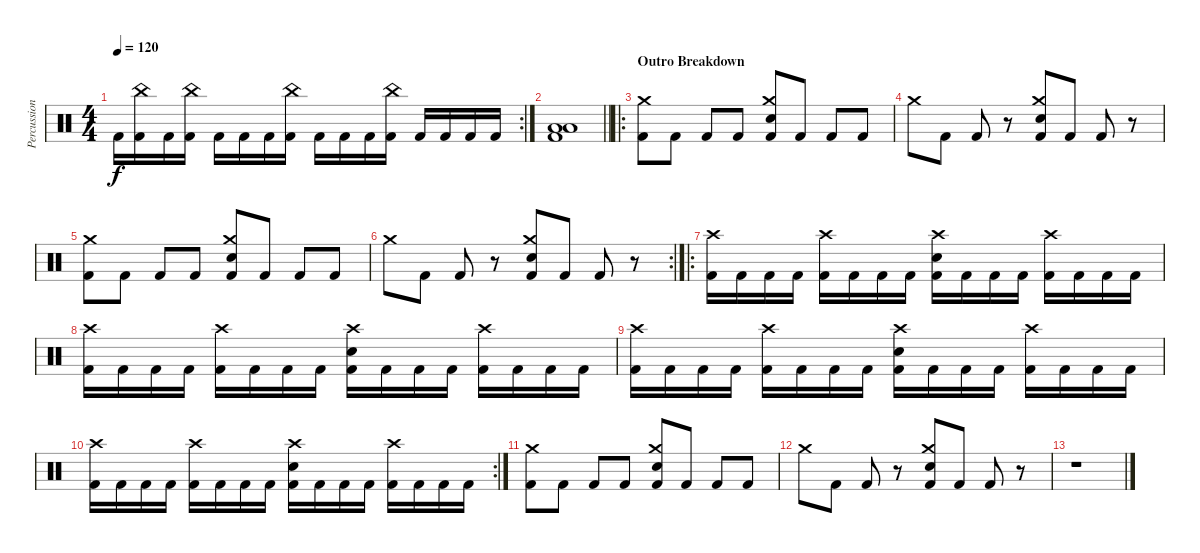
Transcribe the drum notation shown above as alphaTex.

\track ("Percussion" "Percussion") {instrument percussion}
\staff {score}
\articulation defaults
\rc 2
\ts (4 4)
\tempo 120
\clef neutral
\ks c "Kick (hit) 2".16{dy f}
("China (hit)" "Kick (hit) 2").16 "Kick (hit) 2".16 ("China (hit)" "Kick (hit) 2").16 "Kick (hit) 2".16 "Kick (hit) 2".16 "Kick (hit) 2".16 ("China (hit)" "Kick (hit) 2").16 "Kick (hit) 2".16 "Kick (hit) 2".16 "Kick (hit) 2".16 ("China (hit)" "Kick (hit) 2").16 "Kick (hit) 2".16 "Kick (hit) 2".16 "Kick (hit) 2".16 "Kick (hit) 2".16 |
\barLineRight lightlight
("Low Floor Tom (hit)" "Low Tom (hit)" "Kick (hit) 2").1 |
\ro
\section ("" "Outro Breakdown")
("Crash medium (hit)" "Kick (hit) 2").8 "Kick (hit) 2".8 "Kick (hit) 2".8 "Kick (hit) 2".8 ("Crash medium (hit)" "Electric Snare (hit)" "Kick (hit) 2").8 "Kick (hit) 2".8 "Kick (hit) 2".8 "Kick (hit) 2".8 |
"Crash medium (hit)".8 "Kick (hit) 2".8 "Kick (hit) 2".8 r.8 ("Crash medium (hit)" "Electric Snare (hit)" "Kick (hit) 2").8 "Kick (hit) 2".8 "Kick (hit) 2".8 r.8 |
("Crash medium (hit)" "Kick (hit) 2").8 "Kick (hit) 2".8 "Kick (hit) 2".8 "Kick (hit) 2".8 ("Crash medium (hit)" "Electric Snare (hit)" "Kick (hit) 2").8 "Kick (hit) 2".8 "Kick (hit) 2".8 "Kick (hit) 2".8 |
\rc 2 "Crash medium (hit)".8 "Kick (hit) 2".8 "Kick (hit) 2".8
r.8 ("Crash medium (hit)" "Electric Snare (hit)" "Kick (hit) 2").8 "Kick (hit) 2".8 "Kick (hit) 2".8 r.8 |
\ro
("Crash high (hit)" "Kick (hit) 2").16 "Kick (hit) 2".16 "Kick (hit) 2".16 "Kick (hit) 2".16 ("Crash high (hit)" "Kick (hit) 2").16 "Kick (hit) 2".16 "Kick (hit) 2".16 "Kick (hit) 2".16 ("Crash high (hit)" "Electric Snare (hit)" "Kick (hit) 2").16 "Kick (hit) 2".16 "Kick (hit) 2".16 "Kick (hit) 2".16 ("Crash high (hit)" "Kick (hit) 2").16 "Kick (hit) 2".16 "Kick (hit) 2".16 "Kick (hit) 2".16 |
("Crash high (hit)" "Kick (hit) 2").16 "Kick (hit) 2".16 "Kick (hit) 2".16 "Kick (hit) 2".16 ("Crash high (hit)" "Kick (hit) 2").16 "Kick (hit) 2".16 "Kick (hit) 2".16 "Kick (hit) 2".16 ("Crash high (hit)" "Electric Snare (hit)" "Kick (hit) 2").16 "Kick (hit) 2".16 "Kick (hit) 2".16 "Kick (hit) 2".16 ("Crash high (hit)" "Kick (hit) 2").16 "Kick (hit) 2".16 "Kick (hit) 2".16 "Kick (hit) 2".16 |
("Crash high (hit)" "Kick (hit) 2").16 "Kick (hit) 2".16 "Kick (hit) 2".16 "Kick (hit) 2".16 ("Crash high (hit)" "Kick (hit) 2").16 "Kick (hit) 2".16 "Kick (hit) 2".16 "Kick (hit) 2".16 ("Crash high (hit)" "Electric Snare (hit)" "Kick (hit) 2").16 "Kick (hit) 2".16 "Kick (hit) 2".16 "Kick (hit) 2".16 ("Crash high (hit)" "Kick (hit) 2").16 "Kick (hit) 2".16 "Kick (hit) 2".16 "Kick (hit) 2".16 |
\rc 2
("Crash high (hit)" "Kick (hit) 2").16 "Kick (hit) 2".16 "Kick (hit) 2".16 "Kick (hit) 2".16 ("Crash high (hit)" "Kick (hit) 2").16 "Kick (hit) 2".16 "Kick (hit) 2".16 "Kick (hit) 2".16 ("Crash high (hit)" "Electric Snare (hit)" "Kick (hit) 2").16 "Kick (hit) 2".16 "Kick (hit) 2".16 "Kick (hit) 2".16 ("Crash high (hit)" "Kick (hit) 2").16 "Kick (hit) 2".16 "Kick (hit) 2".16 "Kick (hit) 2".16 |
("Crash medium (hit)" "Kick (hit) 2").8 "Kick (hit) 2".8 "Kick (hit) 2".8 "Kick (hit) 2".8 ("Crash medium (hit)" "Electric Snare (hit)" "Kick (hit) 2").8 "Kick (hit) 2".8 "Kick (hit) 2".8 "Kick (hit) 2".8 |
"Crash medium (hit)".8 "Kick (hit) 2".8 "Kick (hit) 2".8 r.8 ("Crash medium (hit)" "Electric Snare (hit)" "Kick (hit) 2").8 "Kick (hit) 2".8 "Kick (hit) 2".8 r.8 |
r.1
